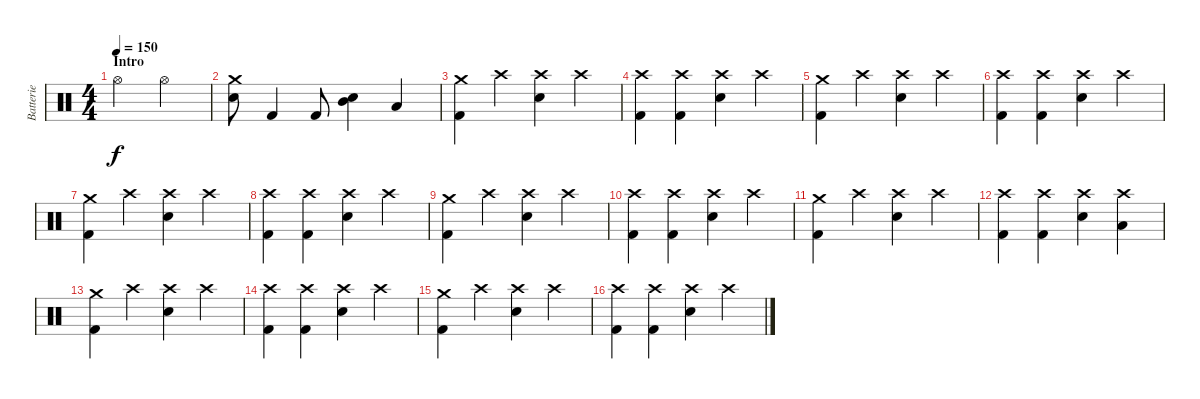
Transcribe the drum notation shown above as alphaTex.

\track ("Batterie" "Batterie") {instrument percussion}
\staff {score}
\articulation defaults
\ts (4 4)
\section ("" "Intro")
\tempo 150
\clef neutral
\ks c "Hi-Hat (open)".2{dy f} "Hi-Hat (open)".2
|
("Crash medium (hit)" "Electric Snare (hit)").8{bu 60} "Kick (hit) 2".4 "Kick (hit) 2".8 ("Mid Tom (hit)" "Electric Snare (hit)").4 "Low Tom (hit)".4 |
("Crash medium (hit)" "Kick (hit) 2").4 "Crash high (hit)".4 ("Crash high (hit)" "Electric Snare (hit)").4 "Crash high (hit)".4 |
("Crash high (hit)" "Kick (hit) 2").4 ("Crash high (hit)" "Kick (hit) 2").4 ("Crash high (hit)" "Electric Snare (hit)").4 "Crash high (hit)".4 |
("Crash medium (hit)" "Kick (hit) 2").4 "Crash high (hit)".4 ("Crash high (hit)" "Electric Snare (hit)").4 "Crash high (hit)".4 |
("Crash high (hit)" "Kick (hit) 2").4 ("Crash high (hit)" "Kick (hit) 2").4 ("Crash high (hit)" "Electric Snare (hit)").4 "Crash high (hit)".4 |
("Crash medium (hit)" "Kick (hit) 2").4 "Crash high (hit)".4 ("Crash high (hit)" "Electric Snare (hit)").4 "Crash high (hit)".4 |
("Crash high (hit)" "Kick (hit) 2").4 ("Crash high (hit)" "Kick (hit) 2").4 ("Crash high (hit)" "Electric Snare (hit)").4 "Crash high (hit)".4 |
("Crash medium (hit)" "Kick (hit) 2").4 "Crash high (hit)".4 ("Crash high (hit)" "Electric Snare (hit)").4 "Crash high (hit)".4 |
("Crash high (hit)" "Kick (hit) 2").4 ("Crash high (hit)" "Kick (hit) 2").4 ("Crash high (hit)" "Electric Snare (hit)").4 "Crash high (hit)".4 |
("Crash medium (hit)" "Kick (hit) 2").4 "Crash high (hit)".4 ("Crash high (hit)" "Electric Snare (hit)").4 "Crash high (hit)".4 |
("Crash high (hit)" "Kick (hit) 2").4 ("Crash high (hit)" "Kick (hit) 2").4 ("Crash high (hit)" "Electric Snare (hit)").4 ("Crash high (hit)" "Low Tom (hit)").4 |
("Crash medium (hit)" "Kick (hit) 2").4 "Crash high (hit)".4 ("Crash high (hit)" "Electric Snare (hit)").4 "Crash high (hit)".4 |
("Crash high (hit)" "Kick (hit) 2").4 ("Crash high (hit)" "Kick (hit) 2").4 ("Crash high (hit)" "Electric Snare (hit)").4 "Crash high (hit)".4 |
("Crash medium (hit)" "Kick (hit) 2").4 "Crash high (hit)".4 ("Crash high (hit)" "Electric Snare (hit)").4 "Crash high (hit)".4 |
("Crash high (hit)" "Kick (hit) 2").4 ("Crash high (hit)" "Kick (hit) 2").4 ("Crash high (hit)" "Electric Snare (hit)").4 "Crash high (hit)".4
